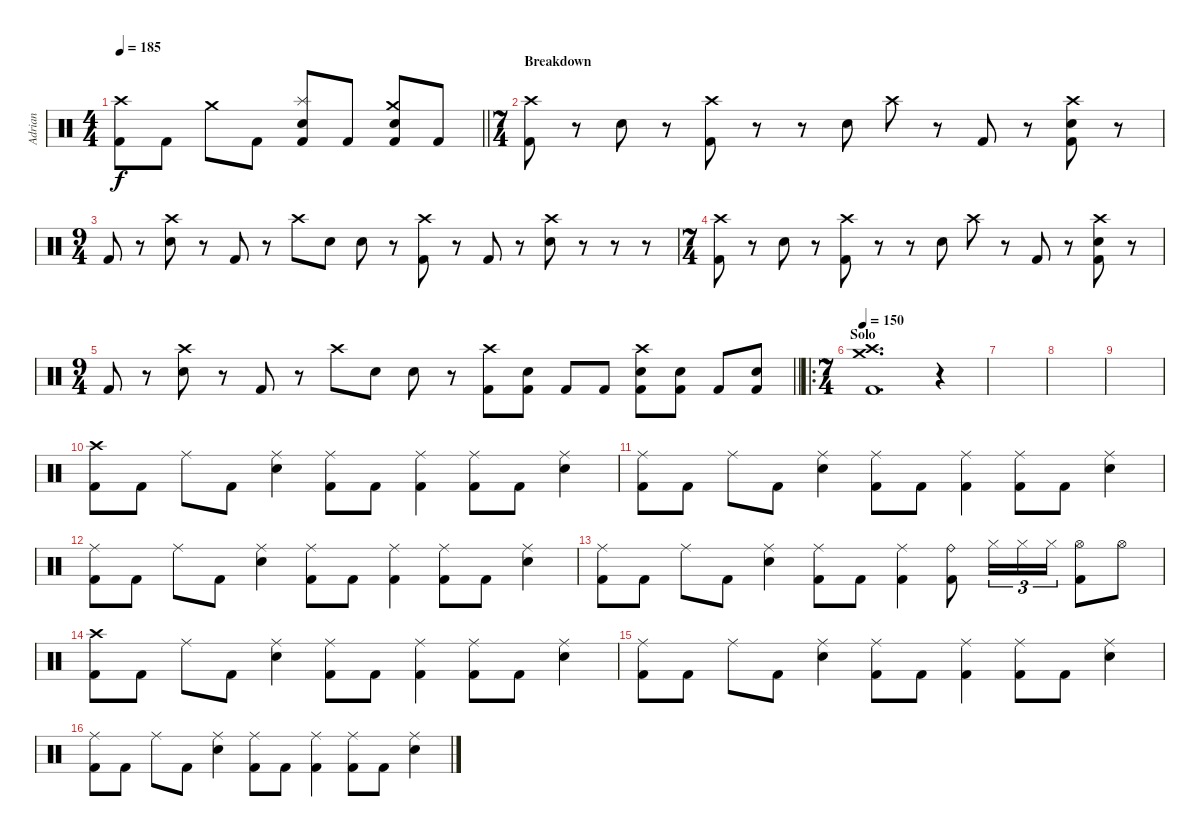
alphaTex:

\track ("Adrian" "Adrian") {instrument percussion}
\staff {score}
\articulation defaults
\ts (4 4)
\tempo 185
\clef neutral
\barLineRight lightlight
\ks c
("Crash high (hit)" "Kick (hit) 2").8{dy f} "Kick (hit) 2".8 "Crash medium (hit)".8 "Kick (hit) 2".8 ("Splash (hit)" "Snare (hit) 2" "Kick (hit) 2").8 "Kick (hit) 2".8 ("Crash medium (hit)" "Snare (hit) 2" "Kick (hit) 2").8 "Kick (hit) 2".8 |
\ts (7 4)
\section ("" "Breakdown")
("Crash high (hit)" "Kick (hit) 2").8 r.8 "Snare (hit) 2".8 r.8 ("Crash high (hit)" "Kick (hit) 2").8 r.8 r.8 "Snare (hit) 2".8 "Crash high (hit)".8 r.8 "Kick (hit) 2".8 r.8 ("Crash high (hit)" "Snare (hit) 2" "Kick (hit) 2").8 r.8 |
\ts (9 4)
"Kick (hit) 2".8 r.8 ("Crash high (hit)" "Snare (hit) 2").8 r.8 "Kick (hit) 2".8 r.8 "Crash high (hit)".8 "Snare (hit) 2".8 "Snare (hit) 2".8 r.8 ("Crash high (hit)" "Kick (hit) 2").8 r.8 "Kick (hit) 2".8 r.8 ("Crash high (hit)" "Snare (hit) 2").8 r.8 r.8 r.8 |
\ts (7 4)
("Crash high (hit)" "Kick (hit) 2").8 r.8 "Snare (hit) 2".8 r.8 ("Crash high (hit)" "Kick (hit) 2").8 r.8 r.8 "Snare (hit) 2".8 "Crash high (hit)".8 r.8 "Kick (hit) 2".8 r.8 ("Crash high (hit)" "Snare (hit) 2" "Kick (hit) 2").8 r.8 |
\ts (9 4)
\barLineRight lightlight "Kick (hit) 2".8
r.8 ("Crash high (hit)" "Snare (hit) 2").8 r.8 "Kick (hit) 2".8 r.8 "Crash high (hit)".8 "Snare (hit) 2".8 "Snare (hit) 2".8 r.8 ("Crash high (hit)" "Kick (hit) 2").8 ("Snare (hit) 2" "Kick (hit) 2").8 "Kick (hit) 2".8 "Kick (hit) 2".8 ("Crash high (hit)" "Snare (hit) 2" "Kick (hit) 2").8 ("Snare (hit) 2" "Kick (hit) 2").8 "Kick (hit) 2".8 ("Snare (hit) 2" "Kick (hit) 2").8 |
\ro
\ts (7 4)
\section ("" "Solo")
\tempo 150
("Crash high (hit)" "Crash medium (hit)" "Kick (hit) 2").1{d} r.4 |
|
|
|
("Crash high (hit)" "Kick (hit) 2").8 "Kick (hit) 2".8 "Ride (middle)".8 "Kick (hit) 2".8 ("Ride (middle)" "Snare (hit) 2").4 ("Ride (middle)" "Kick (hit) 2").8 "Kick (hit) 2".8 ("Ride (middle)" "Kick (hit) 2").4 ("Ride (middle)" "Kick (hit) 2").8 "Kick (hit) 2".8 ("Ride (middle)" "Snare (hit) 2").4 |
("Ride (middle)" "Kick (hit) 2").8 "Kick (hit) 2".8 "Ride (middle)".8 "Kick (hit) 2".8 ("Ride (middle)" "Snare (hit) 2").4 ("Ride (middle)" "Kick (hit) 2").8 "Kick (hit) 2".8 ("Ride (middle)" "Kick (hit) 2").4 ("Ride (middle)" "Kick (hit) 2").8 "Kick (hit) 2".8 ("Ride (middle)" "Snare (hit) 2").4 |
("Ride (middle)" "Kick (hit) 2").8 "Kick (hit) 2".8 "Ride (middle)".8 "Kick (hit) 2".8 ("Ride (middle)" "Snare (hit) 2").4 ("Ride (middle)" "Kick (hit) 2").8 "Kick (hit) 2".8 ("Ride (middle)" "Kick (hit) 2").4 ("Ride (middle)" "Kick (hit) 2").8 "Kick (hit) 2".8 ("Ride (middle)" "Snare (hit) 2").4 |
("Ride (middle)" "Kick (hit) 2").8 "Kick (hit) 2".8 "Ride (middle)".8 "Kick (hit) 2".8 ("Ride (middle)" "Snare (hit) 2").4 ("Ride (middle)" "Kick (hit) 2").8 "Kick (hit) 2".8 ("Ride (middle)" "Kick (hit) 2").4 ("Ride (bell)" "Kick (hit) 2").8 "Hi-Hat (closed)".16{tu (3 2)} "Hi-Hat (closed)".16{tu (3 2)} "Hi-Hat (closed)".16{tu (3 2)} ("Hi-Hat (open)" "Kick (hit) 2").8 "Hi-Hat (open)".8 |
("Crash high (hit)" "Kick (hit) 2").8 "Kick (hit) 2".8 "Ride (middle)".8 "Kick (hit) 2".8 ("Ride (middle)" "Snare (hit) 2").4 ("Ride (middle)" "Kick (hit) 2").8 "Kick (hit) 2".8 ("Ride (middle)" "Kick (hit) 2").4 ("Ride (middle)" "Kick (hit) 2").8 "Kick (hit) 2".8 ("Ride (middle)" "Snare (hit) 2").4 |
("Ride (middle)" "Kick (hit) 2").8 "Kick (hit) 2".8 "Ride (middle)".8 "Kick (hit) 2".8 ("Ride (middle)" "Snare (hit) 2").4 ("Ride (middle)" "Kick (hit) 2").8 "Kick (hit) 2".8 ("Ride (middle)" "Kick (hit) 2").4 ("Ride (middle)" "Kick (hit) 2").8 "Kick (hit) 2".8 ("Ride (middle)" "Snare (hit) 2").4 |
("Ride (middle)" "Kick (hit) 2").8 "Kick (hit) 2".8 "Ride (middle)".8 "Kick (hit) 2".8 ("Ride (middle)" "Snare (hit) 2").4 ("Ride (middle)" "Kick (hit) 2").8 "Kick (hit) 2".8 ("Ride (middle)" "Kick (hit) 2").4 ("Ride (middle)" "Kick (hit) 2").8 "Kick (hit) 2".8 ("Ride (middle)" "Snare (hit) 2").4
